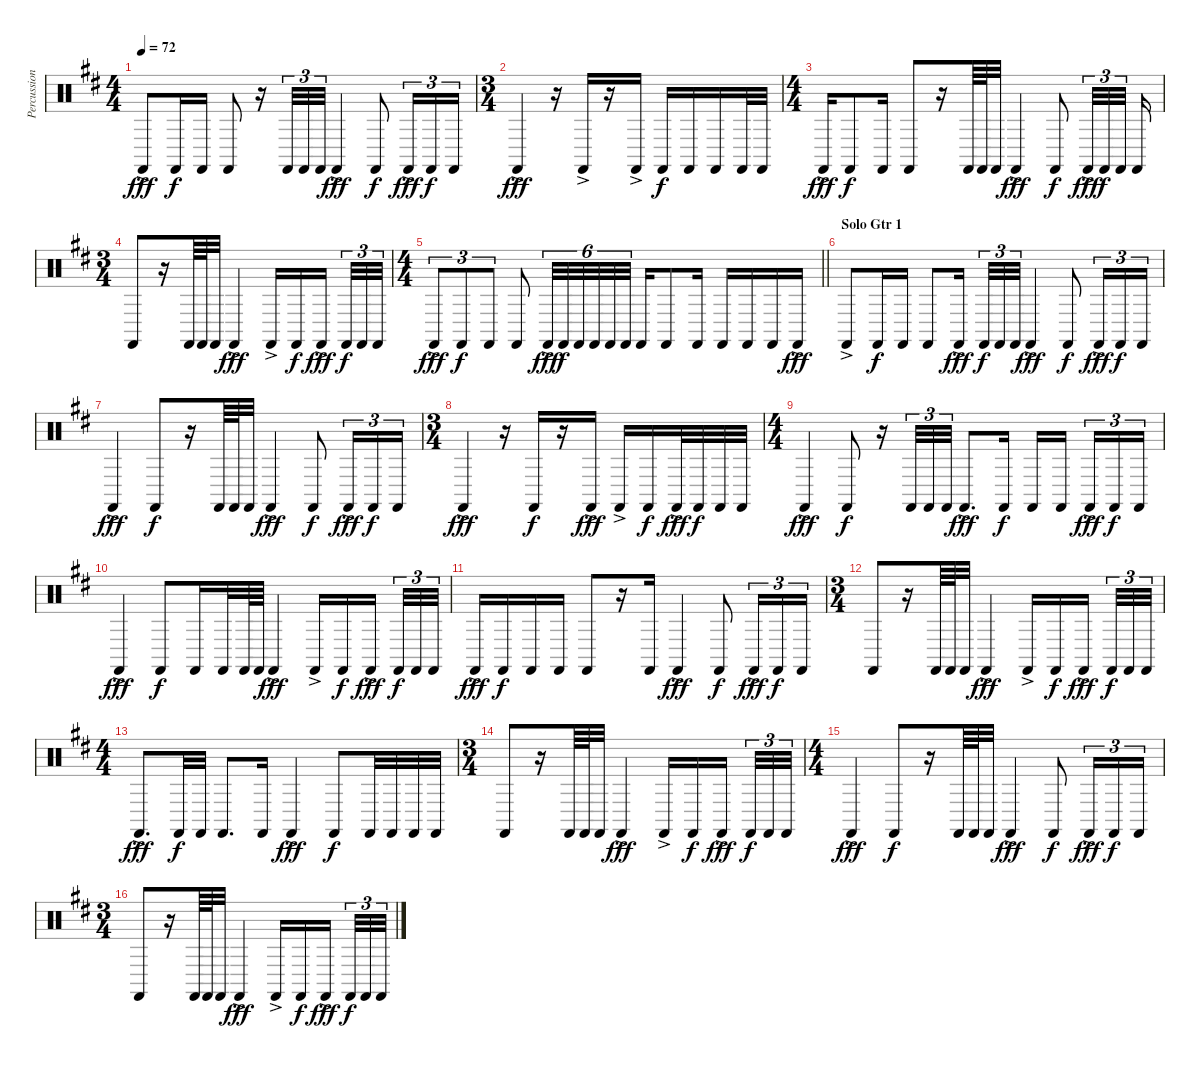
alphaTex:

\track ("Percussions" "Percussion") {instrument percussion}
\staff {score}
\articulation defaults
\ts (4 4)
\tempo 72
\clef neutral
\ks bminor "Castanets (hit)"{ac}.8{dy fff} "Castanets (hit)".16{dy f} "Castanets (hit)".16 "Castanets (hit)".8
r.16 "Castanets (hit)".32{tu (3 2)} "Castanets (hit)".32{tu (3 2)} "Castanets (hit)".32{tu (3 2)} "Castanets (hit)"{ac}.4{dy fff} "Castanets (hit)".8{dy f} "Castanets (hit)"{ac}.16{tu (3 2) dy fff} "Castanets (hit)".16{tu (3 2) dy f} "Castanets (hit)".16{tu (3 2)} |
\ts (3 4)
"Castanets (hit)"{ac}.4{dy fff} r.16 "Castanets (hit)"{ac}.16 r.16 "Castanets (hit)"{ac}.16 "Castanets (hit)".16{dy f} "Castanets (hit)".16 "Castanets (hit)".16 "Castanets (hit)".32 "Castanets (hit)".32 |
\ts (4 4)
"Castanets (hit)"{ac}.16{dy fff} "Castanets (hit)".8{dy f} "Castanets (hit)".16 "Castanets (hit)".8 r.16 "Castanets (hit)".64 "Castanets (hit)".64 "Castanets (hit)".32 "Castanets (hit)"{ac}.4{dy fff} "Castanets (hit)".8{dy f} "Castanets (hit)"{ac}.32{tu (3 2) dy fff} "Castanets (hit)".32{tu (3 2) dy f} "Castanets (hit)".32{tu (3 2)} "Castanets (hit)".16 |
\ts (3 4)
"Castanets (hit)".8 r.16 "Castanets (hit)".64 "Castanets (hit)".64 "Castanets (hit)".32 "Castanets (hit)"{ac}.4{dy fff} "Castanets (hit)"{ac}.16 "Castanets (hit)".16{dy f} "Castanets (hit)"{ac}.16{dy fff} "Castanets (hit)".32{tu (3 2) dy f} "Castanets (hit)".32{tu (3 2)} "Castanets (hit)".32{tu (3 2)} |
\ts (4 4)
\barLineRight lightlight "Castanets (hit)"{ac}.8{tu (3 2) dy fff} "Castanets (hit)".8{tu (3 2) dy f} "Castanets (hit)".8{tu (3 2)} "Castanets (hit)".8 "Castanets (hit)"{ac}.32{tu (6 4) dy fff} "Castanets (hit)".32{tu (6 4) dy f} "Castanets (hit)".32{tu (6 4)} "Castanets (hit)".32{tu (6 4)} "Castanets (hit)".32{tu (6 4)} "Castanets (hit)".32{tu (6 4)} "Castanets (hit)".16 "Castanets (hit)".8 "Castanets (hit)".16 "Castanets (hit)".16 "Castanets (hit)".16 "Castanets (hit)".16 "Castanets (hit)"{ac}.16{dy fff}
|
\section ("" "Solo Gtr 1")
"Castanets (hit)"{ac}.8{volume 8} "Castanets (hit)".16{dy f} "Castanets (hit)".16 "Castanets (hit)".8 "Castanets (hit)"{ac}.16{dy fff} "Castanets (hit)".32{tu (3 2) dy f} "Castanets (hit)".32{tu (3 2)} "Castanets (hit)".32{tu (3 2)} "Castanets (hit)"{ac}.4{dy fff} "Castanets (hit)".8{dy f} "Castanets (hit)"{ac}.16{tu (3 2) dy fff} "Castanets (hit)".16{tu (3 2) dy f} "Castanets (hit)".16{tu (3 2)} |
"Castanets (hit)"{ac}.4{dy fff} "Castanets (hit)".8{dy f} r.16 "Castanets (hit)".64 "Castanets (hit)".64 "Castanets (hit)".32 "Castanets (hit)"{ac}.4{dy fff} "Castanets (hit)".8{dy f} "Castanets (hit)"{ac}.16{tu (3 2) dy fff} "Castanets (hit)".16{tu (3 2) dy f} "Castanets (hit)".16{tu (3 2)} |
\ts (3 4)
"Castanets (hit)"{ac}.4{dy fff} r.16 "Castanets (hit)".16{dy f} r.16 "Castanets (hit)"{ac}.16{dy fff} "Castanets (hit)"{ac}.16 "Castanets (hit)".16{dy f} "Castanets (hit)"{ac}.32{dy fff} "Castanets (hit)".32{dy f} "Castanets (hit)".32 "Castanets (hit)".32 |
\ts (4 4)
"Castanets (hit)"{ac}.4{dy fff} "Castanets (hit)".8{dy f} r.16 "Castanets (hit)".32{tu (3 2)} "Castanets (hit)".32{tu (3 2)} "Castanets (hit)".32{tu (3 2)} "Castanets (hit)"{ac}.8{d dy fff} "Castanets (hit)".16{dy f} "Castanets (hit)".16 "Castanets (hit)".16 "Castanets (hit)"{ac}.16{tu (3 2) dy fff} "Castanets (hit)".16{tu (3 2) dy f} "Castanets (hit)".16{tu (3 2)} |
"Castanets (hit)"{ac}.4{dy fff} "Castanets (hit)".8{dy f} "Castanets (hit)".16 "Castanets (hit)".32 "Castanets (hit)".64 "Castanets (hit)".64 "Castanets (hit)"{ac}.4{dy fff} "Castanets (hit)"{ac}.16 "Castanets (hit)".16{dy f} "Castanets (hit)"{ac}.16{dy fff} "Castanets (hit)".32{tu (3 2) dy f} "Castanets (hit)".32{tu (3 2)} "Castanets (hit)".32{tu (3 2)} |
"Castanets (hit)"{ac}.16{dy fff} "Castanets (hit)".16{dy f} "Castanets (hit)".16 "Castanets (hit)".16 "Castanets (hit)".8 r.16 "Castanets (hit)".16 "Castanets (hit)"{ac}.4{dy fff} "Castanets (hit)".8{dy f} "Castanets (hit)"{ac}.16{tu (3 2) dy fff} "Castanets (hit)".16{tu (3 2) dy f} "Castanets (hit)".16{tu (3 2)} |
\ts (3 4)
"Castanets (hit)".8 r.16 "Castanets (hit)".64 "Castanets (hit)".64 "Castanets (hit)".32 "Castanets (hit)"{ac}.4{dy fff} "Castanets (hit)"{ac}.16 "Castanets (hit)".16{dy f} "Castanets (hit)"{ac}.16{dy fff} "Castanets (hit)".32{tu (3 2) dy f} "Castanets (hit)".32{tu (3 2)} "Castanets (hit)".32{tu (3 2)} |
\ts (4 4)
"Castanets (hit)"{ac}.8{d dy fff} "Castanets (hit)".32{dy f} "Castanets (hit)".32 "Castanets (hit)".8{d} "Castanets (hit)".16 "Castanets (hit)"{ac}.4{dy fff} "Castanets (hit)".8{dy f} "Castanets (hit)".32 "Castanets (hit)".32 "Castanets (hit)".32 "Castanets (hit)".32 |
\ts (3 4)
"Castanets (hit)".8 r.16 "Castanets (hit)".64 "Castanets (hit)".64 "Castanets (hit)".32 "Castanets (hit)"{ac}.4{dy fff} "Castanets (hit)"{ac}.16 "Castanets (hit)".16{dy f} "Castanets (hit)"{ac}.16{dy fff} "Castanets (hit)".32{tu (3 2) dy f} "Castanets (hit)".32{tu (3 2)} "Castanets (hit)".32{tu (3 2)} |
\ts (4 4)
"Castanets (hit)"{ac}.4{dy fff} "Castanets (hit)".8{dy f} r.16 "Castanets (hit)".64 "Castanets (hit)".64 "Castanets (hit)".32 "Castanets (hit)"{ac}.4{dy fff} "Castanets (hit)".8{dy f} "Castanets (hit)"{ac}.16{tu (3 2) dy fff} "Castanets (hit)".16{tu (3 2) dy f} "Castanets (hit)".16{tu (3 2)} |
\ts (3 4)
"Castanets (hit)".8 r.16 "Castanets (hit)".64 "Castanets (hit)".64 "Castanets (hit)".32 "Castanets (hit)"{ac}.4{dy fff} "Castanets (hit)"{ac}.16 "Castanets (hit)".16{dy f} "Castanets (hit)"{ac}.16{dy fff} "Castanets (hit)".32{tu (3 2) dy f} "Castanets (hit)".32{tu (3 2)} "Castanets (hit)".32{tu (3 2)}
